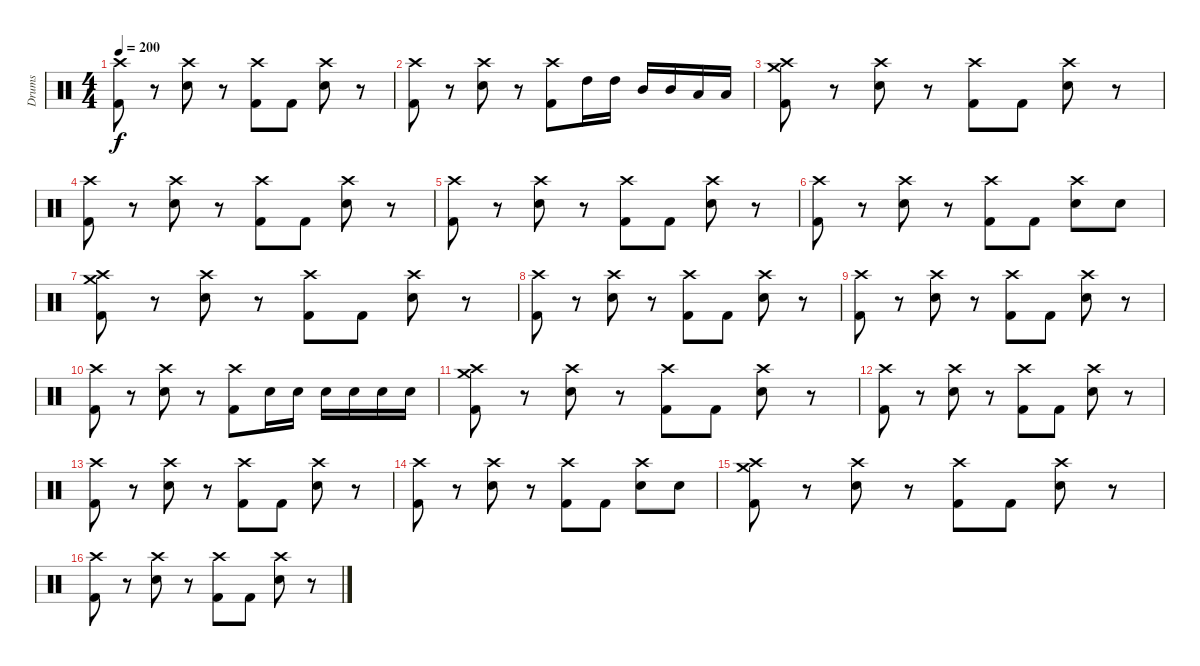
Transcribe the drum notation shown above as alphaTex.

\track ("Drums" "Drums") {instrument percussion}
\staff {score}
\articulation defaults
\ts (4 4)
\tempo 200
\clef neutral
\ks c
("Crash high (hit)" "Kick (hit) 2").8{dy f} r.8 ("Crash high (hit)" "Snare (hit) 2").8 r.8 ("Crash high (hit)" "Kick (hit) 2").8 "Kick (hit) 2".8 ("Crash high (hit)" "Snare (hit) 2").8 r.8 |
("Crash high (hit)" "Kick (hit) 2").8 r.8 ("Crash high (hit)" "Snare (hit) 2").8 r.8 ("Crash high (hit)" "Kick (hit) 2").8 "High Tom (hit)".16 "High Tom (hit)".16 "Mid Tom (hit)".16 "Mid Tom (hit)".16 "Low Tom (hit)".16 "Low Tom (hit)".16 |
("Crash high (hit)" "Crash medium (hit)" "Kick (hit) 2").8 r.8 ("Crash high (hit)" "Snare (hit) 2").8 r.8 ("Crash high (hit)" "Kick (hit) 2").8 "Kick (hit) 2".8 ("Crash high (hit)" "Snare (hit) 2").8 r.8 |
("Crash high (hit)" "Kick (hit) 2").8 r.8 ("Crash high (hit)" "Snare (hit) 2").8 r.8 ("Crash high (hit)" "Kick (hit) 2").8 "Kick (hit) 2".8 ("Crash high (hit)" "Snare (hit) 2").8 r.8 |
("Crash high (hit)" "Kick (hit) 2").8 r.8 ("Crash high (hit)" "Snare (hit) 2").8 r.8 ("Crash high (hit)" "Kick (hit) 2").8 "Kick (hit) 2".8 ("Crash high (hit)" "Snare (hit) 2").8 r.8 |
("Crash high (hit)" "Kick (hit) 2").8 r.8 ("Crash high (hit)" "Snare (hit) 2").8 r.8 ("Crash high (hit)" "Kick (hit) 2").8 "Kick (hit) 2".8 ("Crash high (hit)" "Snare (hit) 2").8 "Snare (hit) 2".8 |
("Crash high (hit)" "Crash medium (hit)" "Kick (hit) 2").8 r.8 ("Crash high (hit)" "Snare (hit) 2").8 r.8 ("Crash high (hit)" "Kick (hit) 2").8 "Kick (hit) 2".8 ("Crash high (hit)" "Snare (hit) 2").8 r.8 |
("Crash high (hit)" "Kick (hit) 2").8 r.8 ("Crash high (hit)" "Snare (hit) 2").8 r.8 ("Crash high (hit)" "Kick (hit) 2").8 "Kick (hit) 2".8 ("Crash high (hit)" "Snare (hit) 2").8 r.8 |
("Crash high (hit)" "Kick (hit) 2").8 r.8 ("Crash high (hit)" "Snare (hit) 2").8 r.8 ("Crash high (hit)" "Kick (hit) 2").8 "Kick (hit) 2".8 ("Crash high (hit)" "Snare (hit) 2").8 r.8 |
("Crash high (hit)" "Kick (hit) 2").8 r.8 ("Crash high (hit)" "Snare (hit) 2").8 r.8 ("Crash high (hit)" "Kick (hit) 2").8 "Snare (hit) 2".16 "Snare (hit) 2".16 "Snare (hit) 2".16 "Snare (hit) 2".16 "Snare (hit) 2".16 "Snare (hit) 2".16 |
("Crash high (hit)" "Crash medium (hit)" "Kick (hit) 2").8 r.8 ("Crash high (hit)" "Snare (hit) 2").8 r.8 ("Crash high (hit)" "Kick (hit) 2").8 "Kick (hit) 2".8 ("Crash high (hit)" "Snare (hit) 2").8 r.8 |
("Crash high (hit)" "Kick (hit) 2").8 r.8 ("Crash high (hit)" "Snare (hit) 2").8 r.8 ("Crash high (hit)" "Kick (hit) 2").8 "Kick (hit) 2".8 ("Crash high (hit)" "Snare (hit) 2").8 r.8 |
("Crash high (hit)" "Kick (hit) 2").8 r.8 ("Crash high (hit)" "Snare (hit) 2").8 r.8 ("Crash high (hit)" "Kick (hit) 2").8 "Kick (hit) 2".8 ("Crash high (hit)" "Snare (hit) 2").8 r.8 |
("Crash high (hit)" "Kick (hit) 2").8 r.8 ("Crash high (hit)" "Snare (hit) 2").8 r.8 ("Crash high (hit)" "Kick (hit) 2").8 "Kick (hit) 2".8 ("Crash high (hit)" "Snare (hit) 2").8 "Snare (hit) 2".8 |
("Crash high (hit)" "Crash medium (hit)" "Kick (hit) 2").8 r.8 ("Crash high (hit)" "Snare (hit) 2").8 r.8 ("Crash high (hit)" "Kick (hit) 2").8 "Kick (hit) 2".8 ("Crash high (hit)" "Snare (hit) 2").8 r.8 |
("Crash high (hit)" "Kick (hit) 2").8 r.8 ("Crash high (hit)" "Snare (hit) 2").8 r.8 ("Crash high (hit)" "Kick (hit) 2").8 "Kick (hit) 2".8 ("Crash high (hit)" "Snare (hit) 2").8 r.8
